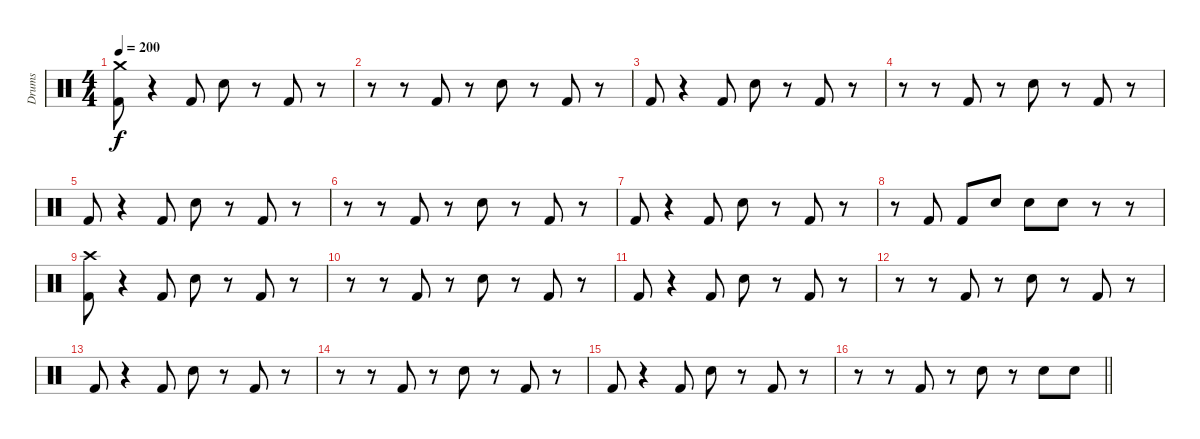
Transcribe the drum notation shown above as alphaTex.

\track ("Drums" "Drums") {instrument percussion}
\staff {score}
\articulation defaults
\ts (4 4)
\tempo 200
\clef neutral
\ks c
("Crash medium (hit)" "Kick (hit) 2").8{dy f} r.4 "Kick (hit) 2".8 "Electric Snare (hit)".8 r.8 "Kick (hit) 2".8 r.8 |
r.8 r.8 "Kick (hit) 2".8 r.8 "Electric Snare (hit)".8 r.8 "Kick (hit) 2".8 r.8 |
"Kick (hit) 2".8 r.4 "Kick (hit) 2".8 "Electric Snare (hit)".8 r.8 "Kick (hit) 2".8 r.8 |
r.8 r.8 "Kick (hit) 2".8 r.8 "Electric Snare (hit)".8 r.8 "Kick (hit) 2".8 r.8 |
"Kick (hit) 2".8 r.4 "Kick (hit) 2".8 "Electric Snare (hit)".8 r.8 "Kick (hit) 2".8 r.8 |
r.8 r.8 "Kick (hit) 2".8 r.8 "Electric Snare (hit)".8 r.8 "Kick (hit) 2".8 r.8 |
"Kick (hit) 2".8 r.4 "Kick (hit) 2".8 "Electric Snare (hit)".8 r.8 "Kick (hit) 2".8 r.8 |
r.8 "Kick (hit) 2".8 "Kick (hit) 2".8 "Electric Snare (hit)".8 "Electric Snare (hit)".8 "Electric Snare (hit)".8 r.8 r.8 |
("Crash high (hit)" "Kick (hit) 2").8 r.4 "Kick (hit) 2".8 "Electric Snare (hit)".8 r.8 "Kick (hit) 2".8 r.8 |
r.8 r.8 "Kick (hit) 2".8 r.8 "Electric Snare (hit)".8 r.8 "Kick (hit) 2".8 r.8 |
"Kick (hit) 2".8 r.4 "Kick (hit) 2".8 "Electric Snare (hit)".8 r.8 "Kick (hit) 2".8 r.8 |
r.8 r.8 "Kick (hit) 2".8 r.8 "Electric Snare (hit)".8 r.8 "Kick (hit) 2".8 r.8 |
"Kick (hit) 2".8 r.4 "Kick (hit) 2".8 "Electric Snare (hit)".8 r.8 "Kick (hit) 2".8 r.8 |
r.8 r.8 "Kick (hit) 2".8 r.8 "Electric Snare (hit)".8 r.8 "Kick (hit) 2".8 r.8 |
"Kick (hit) 2".8 r.4 "Kick (hit) 2".8 "Electric Snare (hit)".8 r.8 "Kick (hit) 2".8 r.8 |
\barLineRight lightlight
r.8 r.8 "Kick (hit) 2".8 r.8 "Electric Snare (hit)".8 r.8 "Electric Snare (hit)".8 "Electric Snare (hit)".8
